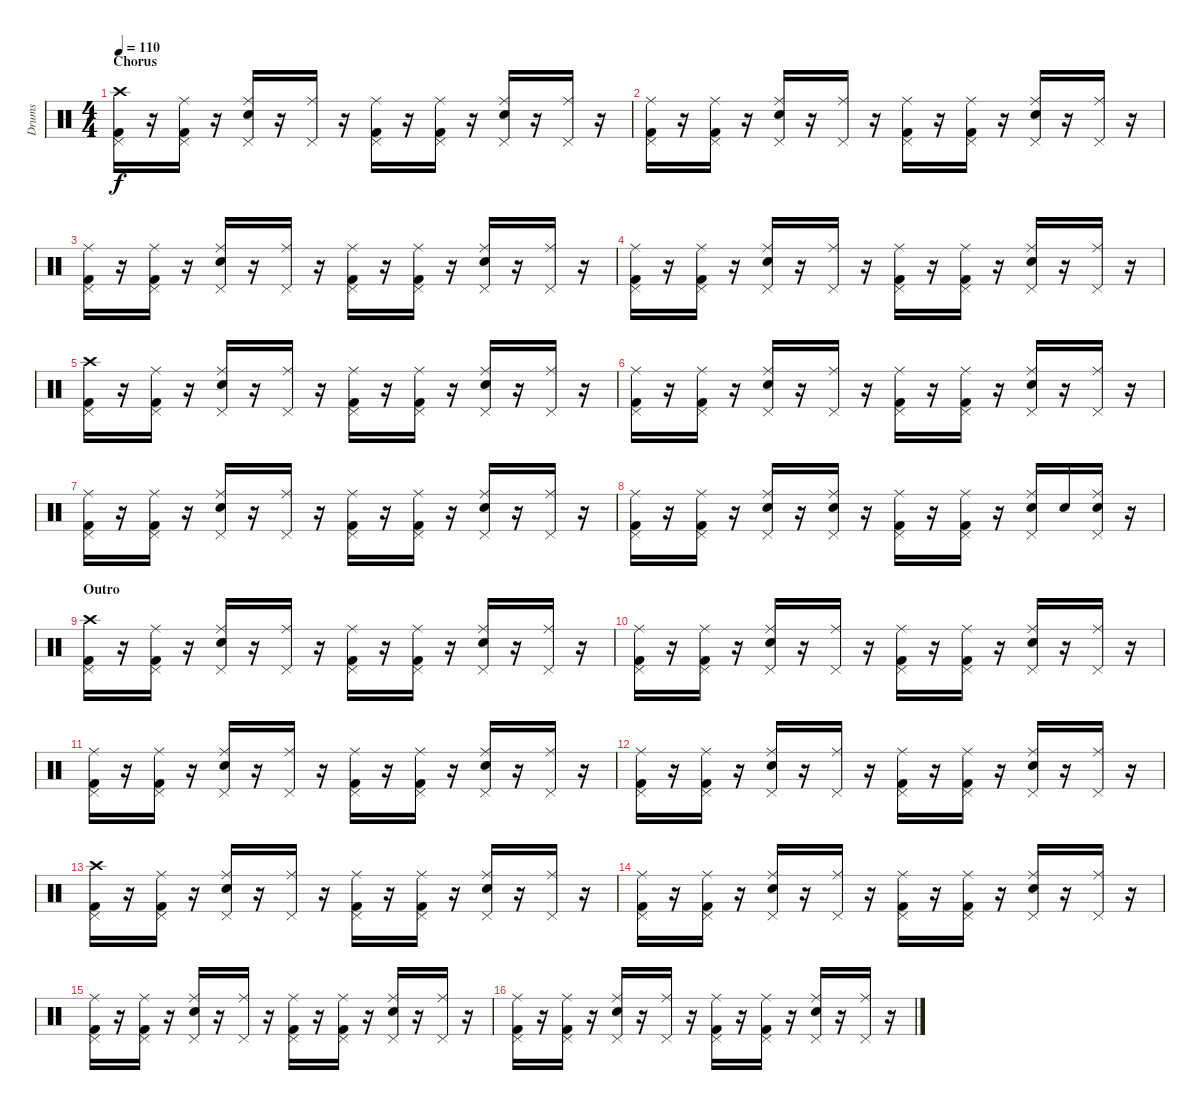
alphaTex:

\track ("Drums" "Drums") {instrument percussion}
\staff {score}
\articulation defaults
\ts (4 4)
\section ("" "Chorus")
\tempo 110
\clef neutral
\ks c
("Crash high (hit)" "Kick (hit) 2" "Pedal Hi-Hat (hit)").16{dy f} r.16 ("Ride (middle)" "Kick (hit) 2" "Pedal Hi-Hat (hit)").16 r.16 ("Ride (middle)" "Electric Snare (hit)" "Pedal Hi-Hat (hit)").16 r.16 ("Ride (middle)" "Pedal Hi-Hat (hit)").16 r.16 ("Ride (middle)" "Kick (hit) 2" "Pedal Hi-Hat (hit)").16 r.16 ("Ride (middle)" "Kick (hit) 2" "Pedal Hi-Hat (hit)").16 r.16 ("Ride (middle)" "Electric Snare (hit)" "Pedal Hi-Hat (hit)").16 r.16 ("Ride (middle)" "Pedal Hi-Hat (hit)").16 r.16 |
("Ride (middle)" "Kick (hit) 2" "Pedal Hi-Hat (hit)").16 r.16 ("Ride (middle)" "Kick (hit) 2" "Pedal Hi-Hat (hit)").16 r.16 ("Ride (middle)" "Electric Snare (hit)" "Pedal Hi-Hat (hit)").16 r.16 ("Ride (middle)" "Pedal Hi-Hat (hit)").16 r.16 ("Ride (middle)" "Kick (hit) 2" "Pedal Hi-Hat (hit)").16 r.16 ("Ride (middle)" "Kick (hit) 2" "Pedal Hi-Hat (hit)").16 r.16 ("Ride (middle)" "Electric Snare (hit)" "Pedal Hi-Hat (hit)").16 r.16 ("Ride (middle)" "Pedal Hi-Hat (hit)").16 r.16 |
("Ride (middle)" "Kick (hit) 2" "Pedal Hi-Hat (hit)").16 r.16 ("Ride (middle)" "Kick (hit) 2" "Pedal Hi-Hat (hit)").16 r.16 ("Ride (middle)" "Electric Snare (hit)" "Pedal Hi-Hat (hit)").16 r.16 ("Ride (middle)" "Pedal Hi-Hat (hit)").16 r.16 ("Ride (middle)" "Kick (hit) 2" "Pedal Hi-Hat (hit)").16 r.16 ("Ride (middle)" "Kick (hit) 2" "Pedal Hi-Hat (hit)").16 r.16 ("Ride (middle)" "Electric Snare (hit)" "Pedal Hi-Hat (hit)").16 r.16 ("Ride (middle)" "Pedal Hi-Hat (hit)").16 r.16 |
("Ride (middle)" "Kick (hit) 2" "Pedal Hi-Hat (hit)").16 r.16 ("Ride (middle)" "Kick (hit) 2" "Pedal Hi-Hat (hit)").16 r.16 ("Ride (middle)" "Electric Snare (hit)" "Pedal Hi-Hat (hit)").16 r.16 ("Ride (middle)" "Pedal Hi-Hat (hit)").16 r.16 ("Ride (middle)" "Kick (hit) 2" "Pedal Hi-Hat (hit)").16 r.16 ("Ride (middle)" "Kick (hit) 2" "Pedal Hi-Hat (hit)").16 r.16 ("Ride (middle)" "Electric Snare (hit)" "Pedal Hi-Hat (hit)").16 r.16 ("Ride (middle)" "Pedal Hi-Hat (hit)").16 r.16 |
("Crash high (hit)" "Kick (hit) 2" "Pedal Hi-Hat (hit)").16 r.16 ("Ride (middle)" "Kick (hit) 2" "Pedal Hi-Hat (hit)").16 r.16 ("Ride (middle)" "Electric Snare (hit)" "Pedal Hi-Hat (hit)").16 r.16 ("Ride (middle)" "Pedal Hi-Hat (hit)").16 r.16 ("Ride (middle)" "Kick (hit) 2" "Pedal Hi-Hat (hit)").16 r.16 ("Ride (middle)" "Kick (hit) 2" "Pedal Hi-Hat (hit)").16 r.16 ("Ride (middle)" "Electric Snare (hit)" "Pedal Hi-Hat (hit)").16 r.16 ("Ride (middle)" "Pedal Hi-Hat (hit)").16 r.16 |
("Ride (middle)" "Kick (hit) 2" "Pedal Hi-Hat (hit)").16 r.16 ("Ride (middle)" "Kick (hit) 2" "Pedal Hi-Hat (hit)").16 r.16 ("Ride (middle)" "Electric Snare (hit)" "Pedal Hi-Hat (hit)").16 r.16 ("Ride (middle)" "Pedal Hi-Hat (hit)").16 r.16 ("Ride (middle)" "Kick (hit) 2" "Pedal Hi-Hat (hit)").16 r.16 ("Ride (middle)" "Kick (hit) 2" "Pedal Hi-Hat (hit)").16 r.16 ("Ride (middle)" "Electric Snare (hit)" "Pedal Hi-Hat (hit)").16 r.16 ("Ride (middle)" "Pedal Hi-Hat (hit)").16 r.16 |
("Ride (middle)" "Kick (hit) 2" "Pedal Hi-Hat (hit)").16 r.16 ("Ride (middle)" "Kick (hit) 2" "Pedal Hi-Hat (hit)").16 r.16 ("Ride (middle)" "Electric Snare (hit)" "Pedal Hi-Hat (hit)").16 r.16 ("Ride (middle)" "Pedal Hi-Hat (hit)").16 r.16 ("Ride (middle)" "Kick (hit) 2" "Pedal Hi-Hat (hit)").16 r.16 ("Ride (middle)" "Kick (hit) 2" "Pedal Hi-Hat (hit)").16 r.16 ("Ride (middle)" "Electric Snare (hit)" "Pedal Hi-Hat (hit)").16 r.16 ("Ride (middle)" "Pedal Hi-Hat (hit)").16 r.16 |
("Ride (middle)" "Kick (hit) 2" "Pedal Hi-Hat (hit)").16 r.16 ("Ride (middle)" "Kick (hit) 2" "Pedal Hi-Hat (hit)").16 r.16 ("Ride (middle)" "Electric Snare (hit)" "Pedal Hi-Hat (hit)").16 r.16 ("Ride (middle)" "Electric Snare (hit)" "Pedal Hi-Hat (hit)").16 r.16 ("Ride (middle)" "Kick (hit) 2" "Pedal Hi-Hat (hit)").16 r.16 ("Ride (middle)" "Kick (hit) 2" "Pedal Hi-Hat (hit)").16 r.16 ("Ride (middle)" "Electric Snare (hit)" "Pedal Hi-Hat (hit)").16 "Electric Snare (hit)".16 ("Ride (middle)" "Electric Snare (hit)" "Pedal Hi-Hat (hit)").16 r.16 |
\section ("" "Outro")
("Crash high (hit)" "Kick (hit) 2" "Pedal Hi-Hat (hit)").16 r.16 ("Ride (middle)" "Kick (hit) 2" "Pedal Hi-Hat (hit)").16 r.16 ("Ride (middle)" "Electric Snare (hit)" "Pedal Hi-Hat (hit)").16 r.16 ("Ride (middle)" "Pedal Hi-Hat (hit)").16 r.16 ("Ride (middle)" "Kick (hit) 2" "Pedal Hi-Hat (hit)").16 r.16 ("Ride (middle)" "Kick (hit) 2" "Pedal Hi-Hat (hit)").16 r.16 ("Ride (middle)" "Electric Snare (hit)" "Pedal Hi-Hat (hit)").16 r.16 ("Ride (middle)" "Pedal Hi-Hat (hit)").16 r.16 |
("Ride (middle)" "Kick (hit) 2" "Pedal Hi-Hat (hit)").16 r.16 ("Ride (middle)" "Kick (hit) 2" "Pedal Hi-Hat (hit)").16 r.16 ("Ride (middle)" "Electric Snare (hit)" "Pedal Hi-Hat (hit)").16 r.16 ("Ride (middle)" "Pedal Hi-Hat (hit)").16 r.16 ("Ride (middle)" "Kick (hit) 2" "Pedal Hi-Hat (hit)").16 r.16 ("Ride (middle)" "Kick (hit) 2" "Pedal Hi-Hat (hit)").16 r.16 ("Ride (middle)" "Electric Snare (hit)" "Pedal Hi-Hat (hit)").16 r.16 ("Ride (middle)" "Pedal Hi-Hat (hit)").16 r.16 |
("Ride (middle)" "Kick (hit) 2" "Pedal Hi-Hat (hit)").16 r.16 ("Ride (middle)" "Kick (hit) 2" "Pedal Hi-Hat (hit)").16 r.16 ("Ride (middle)" "Electric Snare (hit)" "Pedal Hi-Hat (hit)").16 r.16 ("Ride (middle)" "Pedal Hi-Hat (hit)").16 r.16 ("Ride (middle)" "Kick (hit) 2" "Pedal Hi-Hat (hit)").16 r.16 ("Ride (middle)" "Kick (hit) 2" "Pedal Hi-Hat (hit)").16 r.16 ("Ride (middle)" "Electric Snare (hit)" "Pedal Hi-Hat (hit)").16 r.16 ("Ride (middle)" "Pedal Hi-Hat (hit)").16 r.16 |
("Ride (middle)" "Kick (hit) 2" "Pedal Hi-Hat (hit)").16 r.16 ("Ride (middle)" "Kick (hit) 2" "Pedal Hi-Hat (hit)").16 r.16 ("Ride (middle)" "Electric Snare (hit)" "Pedal Hi-Hat (hit)").16 r.16 ("Ride (middle)" "Pedal Hi-Hat (hit)").16 r.16 ("Ride (middle)" "Kick (hit) 2" "Pedal Hi-Hat (hit)").16 r.16 ("Ride (middle)" "Kick (hit) 2" "Pedal Hi-Hat (hit)").16 r.16 ("Ride (middle)" "Electric Snare (hit)" "Pedal Hi-Hat (hit)").16 r.16 ("Ride (middle)" "Pedal Hi-Hat (hit)").16 r.16 |
("Crash high (hit)" "Kick (hit) 2" "Pedal Hi-Hat (hit)").16 r.16 ("Ride (middle)" "Kick (hit) 2" "Pedal Hi-Hat (hit)").16 r.16 ("Ride (middle)" "Electric Snare (hit)" "Pedal Hi-Hat (hit)").16 r.16 ("Ride (middle)" "Pedal Hi-Hat (hit)").16 r.16 ("Ride (middle)" "Kick (hit) 2" "Pedal Hi-Hat (hit)").16 r.16 ("Ride (middle)" "Kick (hit) 2" "Pedal Hi-Hat (hit)").16 r.16 ("Ride (middle)" "Electric Snare (hit)" "Pedal Hi-Hat (hit)").16 r.16 ("Ride (middle)" "Pedal Hi-Hat (hit)").16 r.16 |
("Ride (middle)" "Kick (hit) 2" "Pedal Hi-Hat (hit)").16 r.16 ("Ride (middle)" "Kick (hit) 2" "Pedal Hi-Hat (hit)").16 r.16 ("Ride (middle)" "Electric Snare (hit)" "Pedal Hi-Hat (hit)").16 r.16 ("Ride (middle)" "Pedal Hi-Hat (hit)").16 r.16 ("Ride (middle)" "Kick (hit) 2" "Pedal Hi-Hat (hit)").16 r.16 ("Ride (middle)" "Kick (hit) 2" "Pedal Hi-Hat (hit)").16 r.16 ("Ride (middle)" "Electric Snare (hit)" "Pedal Hi-Hat (hit)").16 r.16 ("Ride (middle)" "Pedal Hi-Hat (hit)").16 r.16 |
("Ride (middle)" "Kick (hit) 2" "Pedal Hi-Hat (hit)").16 r.16 ("Ride (middle)" "Kick (hit) 2" "Pedal Hi-Hat (hit)").16 r.16 ("Ride (middle)" "Electric Snare (hit)" "Pedal Hi-Hat (hit)").16 r.16 ("Ride (middle)" "Pedal Hi-Hat (hit)").16 r.16 ("Ride (middle)" "Kick (hit) 2" "Pedal Hi-Hat (hit)").16 r.16 ("Ride (middle)" "Kick (hit) 2" "Pedal Hi-Hat (hit)").16 r.16 ("Ride (middle)" "Electric Snare (hit)" "Pedal Hi-Hat (hit)").16 r.16 ("Ride (middle)" "Pedal Hi-Hat (hit)").16 r.16 |
("Ride (middle)" "Kick (hit) 2" "Pedal Hi-Hat (hit)").16 r.16 ("Ride (middle)" "Kick (hit) 2" "Pedal Hi-Hat (hit)").16 r.16 ("Ride (middle)" "Electric Snare (hit)" "Pedal Hi-Hat (hit)").16 r.16 ("Ride (middle)" "Pedal Hi-Hat (hit)").16 r.16 ("Ride (middle)" "Kick (hit) 2" "Pedal Hi-Hat (hit)").16 r.16 ("Ride (middle)" "Kick (hit) 2" "Pedal Hi-Hat (hit)").16 r.16 ("Ride (middle)" "Electric Snare (hit)" "Pedal Hi-Hat (hit)").16 r.16 ("Ride (middle)" "Pedal Hi-Hat (hit)").16 r.16
